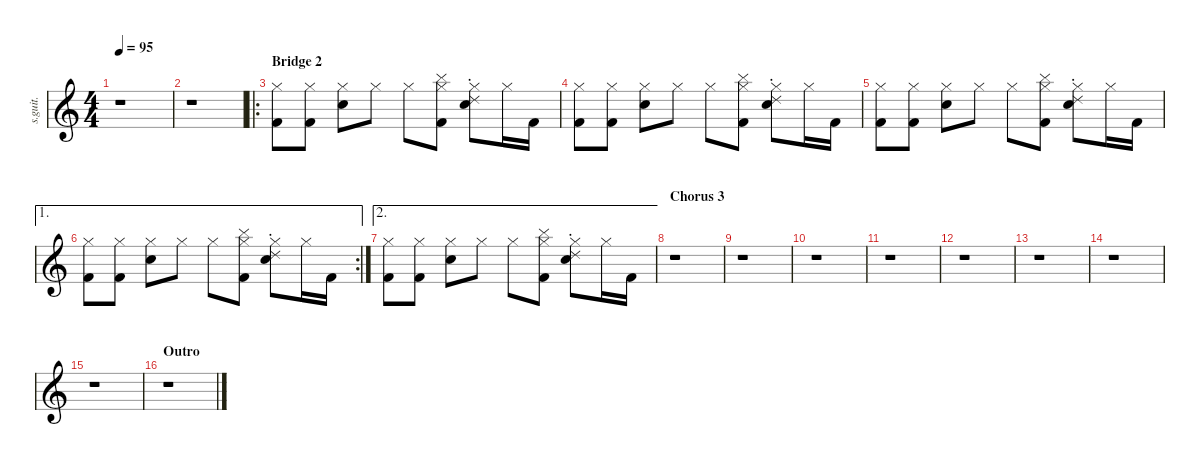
\defaultSystemsLayout 4
\hideDynamics
\bracketExtendMode nobrackets
\track ("(Electronic Beats)" "s.guit.") {instrument percussion}
\staff {score}
\articulation defaults
\ts (4 4)
\tempo 95
\clef g2
\ks c
r.1{dy mp} |
r.1 |
\ro
\section ("" "Bridge 2")
("Hi-Hat (closed)" "Kick (hit) 2").8{lyrics (0 "") lyrics (1 "") lyrics (2 "") lyrics (3 "") lyrics (4 "")} ("Hi-Hat (closed)" "Kick (hit) 2").8{lyrics (0 "") lyrics (1 "") lyrics (2 "") lyrics (3 "") lyrics (4 "")} ("Hi-Hat (closed)" "Snare (hit) 2").8{lyrics (0 "") lyrics (1 "") lyrics (2 "") lyrics (3 "") lyrics (4 "")} "Hi-Hat (closed)".8{lyrics (0 "") lyrics (1 "") lyrics (2 "") lyrics (3 "") lyrics (4 "")} "Hi-Hat (closed)".8{lyrics (0 "") lyrics (1 "") lyrics (2 "") lyrics (3 "") lyrics (4 "")} ("Hi-Hat (closed)" "Cymbal (hit)" "Kick (hit) 2").8{lyrics (0 "") lyrics (1 "") lyrics (2 "") lyrics (3 "") lyrics (4 "")} ("Hi-Hat (closed)" "Snare (hit) 2" "Ride (choke) 2").8{lyrics (0 "") lyrics (1 "") lyrics (2 "") lyrics (3 "") lyrics (4 "")} "Hi-Hat (closed)".16{lyrics (0 "") lyrics (1 "") lyrics (2 "") lyrics (3 "") lyrics (4 "")} "Kick (hit) 2".16{lyrics (0 "") lyrics (1 "") lyrics (2 "") lyrics (3 "") lyrics (4 "")} |
("Hi-Hat (closed)" "Kick (hit) 2").8{lyrics (0 "") lyrics (1 "") lyrics (2 "") lyrics (3 "") lyrics (4 "")} ("Hi-Hat (closed)" "Kick (hit) 2").8{lyrics (0 "") lyrics (1 "") lyrics (2 "") lyrics (3 "") lyrics (4 "")} ("Hi-Hat (closed)" "Snare (hit) 2").8{lyrics (0 "") lyrics (1 "") lyrics (2 "") lyrics (3 "") lyrics (4 "")} "Hi-Hat (closed)".8{lyrics (0 "") lyrics (1 "") lyrics (2 "") lyrics (3 "") lyrics (4 "")} "Hi-Hat (closed)".8{lyrics (0 "") lyrics (1 "") lyrics (2 "") lyrics (3 "") lyrics (4 "")} ("Hi-Hat (closed)" "Cymbal (hit)" "Kick (hit) 2").8{lyrics (0 "") lyrics (1 "") lyrics (2 "") lyrics (3 "") lyrics (4 "")} ("Hi-Hat (closed)" "Snare (hit) 2" "Ride (choke) 2").8{lyrics (0 "") lyrics (1 "") lyrics (2 "") lyrics (3 "") lyrics (4 "")} "Hi-Hat (closed)".16{lyrics (0 "") lyrics (1 "") lyrics (2 "") lyrics (3 "") lyrics (4 "")} "Kick (hit) 2".16{lyrics (0 "") lyrics (1 "") lyrics (2 "") lyrics (3 "") lyrics (4 "")} |
("Hi-Hat (closed)" "Kick (hit) 2").8{lyrics (0 "") lyrics (1 "") lyrics (2 "") lyrics (3 "") lyrics (4 "")} ("Hi-Hat (closed)" "Kick (hit) 2").8{lyrics (0 "") lyrics (1 "") lyrics (2 "") lyrics (3 "") lyrics (4 "")} ("Hi-Hat (closed)" "Snare (hit) 2").8{lyrics (0 "") lyrics (1 "") lyrics (2 "") lyrics (3 "") lyrics (4 "")} "Hi-Hat (closed)".8{lyrics (0 "") lyrics (1 "") lyrics (2 "") lyrics (3 "") lyrics (4 "")} "Hi-Hat (closed)".8{lyrics (0 "") lyrics (1 "") lyrics (2 "") lyrics (3 "") lyrics (4 "")} ("Hi-Hat (closed)" "Cymbal (hit)" "Kick (hit) 2").8{lyrics (0 "") lyrics (1 "") lyrics (2 "") lyrics (3 "") lyrics (4 "")} ("Hi-Hat (closed)" "Snare (hit) 2" "Ride (choke) 2").8{lyrics (0 "") lyrics (1 "") lyrics (2 "") lyrics (3 "") lyrics (4 "")} "Hi-Hat (closed)".16{lyrics (0 "") lyrics (1 "") lyrics (2 "") lyrics (3 "") lyrics (4 "")} "Kick (hit) 2".16{lyrics (0 "") lyrics (1 "") lyrics (2 "") lyrics (3 "") lyrics (4 "")} |
\ae 1
\rc 2
("Hi-Hat (closed)" "Kick (hit) 2").8{lyrics (0 "") lyrics (1 "") lyrics (2 "") lyrics (3 "") lyrics (4 "")} ("Hi-Hat (closed)" "Kick (hit) 2").8{lyrics (0 "") lyrics (1 "") lyrics (2 "") lyrics (3 "") lyrics (4 "")} ("Hi-Hat (closed)" "Snare (hit) 2").8{lyrics (0 "") lyrics (1 "") lyrics (2 "") lyrics (3 "") lyrics (4 "")} "Hi-Hat (closed)".8{lyrics (0 "") lyrics (1 "") lyrics (2 "") lyrics (3 "") lyrics (4 "")} "Hi-Hat (closed)".8{lyrics (0 "") lyrics (1 "") lyrics (2 "") lyrics (3 "") lyrics (4 "")} ("Hi-Hat (closed)" "Cymbal (hit)" "Kick (hit) 2").8{lyrics (0 "") lyrics (1 "") lyrics (2 "") lyrics (3 "") lyrics (4 "")} ("Hi-Hat (closed)" "Snare (hit) 2" "Ride (choke) 2").8{lyrics (0 "") lyrics (1 "") lyrics (2 "") lyrics (3 "") lyrics (4 "")} "Hi-Hat (closed)".16{lyrics (0 "") lyrics (1 "") lyrics (2 "") lyrics (3 "") lyrics (4 "")} "Kick (hit) 2".16{lyrics (0 "") lyrics (1 "") lyrics (2 "") lyrics (3 "") lyrics (4 "")} |
\ae 2
("Hi-Hat (closed)" "Kick (hit) 2").8{lyrics (0 "") lyrics (1 "") lyrics (2 "") lyrics (3 "") lyrics (4 "")} ("Hi-Hat (closed)" "Kick (hit) 2").8{lyrics (0 "") lyrics (1 "") lyrics (2 "") lyrics (3 "") lyrics (4 "")} ("Hi-Hat (closed)" "Snare (hit) 2").8{lyrics (0 "") lyrics (1 "") lyrics (2 "") lyrics (3 "") lyrics (4 "")} "Hi-Hat (closed)".8{lyrics (0 "") lyrics (1 "") lyrics (2 "") lyrics (3 "") lyrics (4 "")} "Hi-Hat (closed)".8{lyrics (0 "") lyrics (1 "") lyrics (2 "") lyrics (3 "") lyrics (4 "")} ("Hi-Hat (closed)" "Cymbal (hit)" "Kick (hit) 2").8{lyrics (0 "") lyrics (1 "") lyrics (2 "") lyrics (3 "") lyrics (4 "")} ("Hi-Hat (closed)" "Snare (hit) 2" "Ride (choke) 2").8{lyrics (0 "") lyrics (1 "") lyrics (2 "") lyrics (3 "") lyrics (4 "")} "Hi-Hat (closed)".16{lyrics (0 "") lyrics (1 "") lyrics (2 "") lyrics (3 "") lyrics (4 "")} "Kick (hit) 2".16{lyrics (0 "") lyrics (1 "") lyrics (2 "") lyrics (3 "") lyrics (4 "")} |
\section ("" "Chorus 3")
r.1 |
r.1 |
r.1 |
r.1 |
r.1 |
r.1 |
r.1 |
r.1 |
\section ("" "Outro")
r.1
